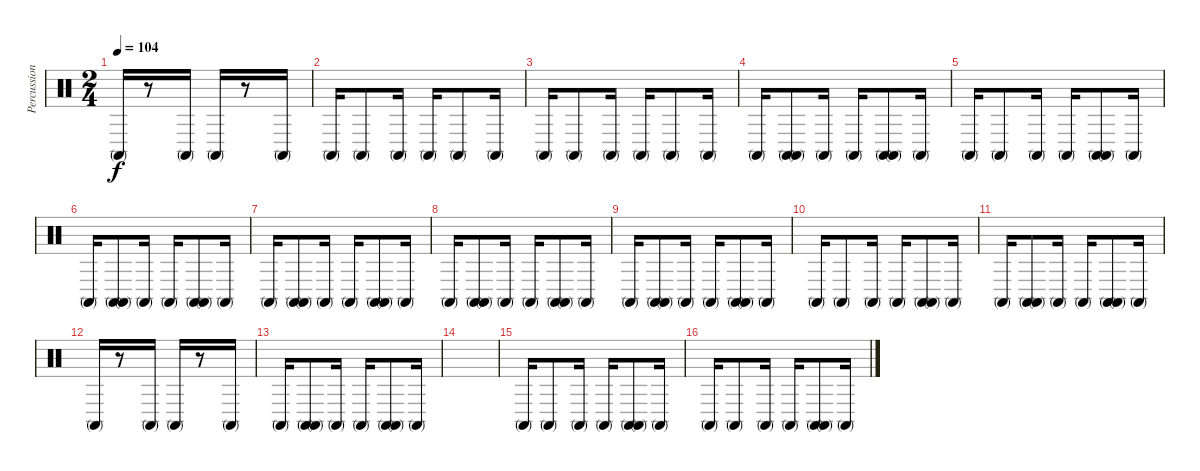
\track ("Percussion" "Percussion") {instrument percussion}
\staff {score}
\articulation defaults
\ts (2 4)
\tempo 104
\clef neutral
\ks c "Conga high (mute)".16{dy f}
r.8 "Conga high (mute)".16 "Conga high (mute)".16 r.8 "Conga high (mute)".16 |
"Conga high (mute)".16 "Conga high (mute)".8 "Conga high (mute)".16 "Conga high (mute)".16 "Conga high (mute)".8 "Conga high (mute)".16 |
"Conga high (mute)".16 "Conga high (mute)".8 "Conga high (mute)".16 "Conga high (mute)".16 "Conga high (mute)".8 "Conga high (mute)".16 |
"Conga high (mute)".16 ("Conga high (mute)" "Conga high (mute)").8 "Conga high (mute)".16 "Conga high (mute)".16 ("Conga high (mute)" "Conga high (mute)").8 "Conga high (mute)".16 |
"Conga high (mute)".16 "Conga high (mute)".8 "Conga high (mute)".16 "Conga high (mute)".16 ("Conga high (mute)" "Conga high (mute)").8 "Conga high (mute)".16 |
"Conga high (mute)".16 ("Conga high (mute)" "Conga high (mute)").8 "Conga high (mute)".16 "Conga high (mute)".16 ("Conga high (mute)" "Conga high (mute)").8 "Conga high (mute)".16 |
"Conga high (mute)".16 ("Conga high (mute)" "Conga high (mute)").8 "Conga high (mute)".16 "Conga high (mute)".16 ("Conga high (mute)" "Conga high (mute)").8 "Conga high (mute)".16 |
"Conga high (mute)".16 ("Conga high (mute)" "Conga high (mute)").8 "Conga high (mute)".16 "Conga high (mute)".16 ("Conga high (mute)" "Conga high (mute)").8 "Conga high (mute)".16 |
"Conga high (mute)".16 ("Conga high (mute)" "Conga high (mute)").8 "Conga high (mute)".16 "Conga high (mute)".16 ("Conga high (mute)" "Conga high (mute)").8 "Conga high (mute)".16 |
"Conga high (mute)".16 "Conga high (mute)".8 "Conga high (mute)".16 "Conga high (mute)".16 ("Conga high (mute)" "Conga high (mute)").8 "Conga high (mute)".16 |
"Conga high (mute)".16 ("Conga high (mute)" "Conga high (mute)").8 "Conga high (mute)".16 "Conga high (mute)".16 ("Conga high (mute)" "Conga high (mute)").8 "Conga high (mute)".16 |
"Conga high (mute)".16 r.8 "Conga high (mute)".16 "Conga high (mute)".16 r.8 "Conga high (mute)".16 |
"Conga high (mute)".16 ("Conga high (mute)" "Conga high (mute)").8 "Conga high (mute)".16 "Conga high (mute)".16 ("Conga high (mute)" "Conga high (mute)").8 "Conga high (mute)".16 |
|
"Conga high (mute)".16 "Conga high (mute)".8 "Conga high (mute)".16 "Conga high (mute)".16 ("Conga high (mute)" "Conga high (mute)").8 "Conga high (mute)".16 |
"Conga high (mute)".16 "Conga high (mute)".8 "Conga high (mute)".16 "Conga high (mute)".16 ("Conga high (mute)" "Conga high (mute)").8 "Conga high (mute)".16
